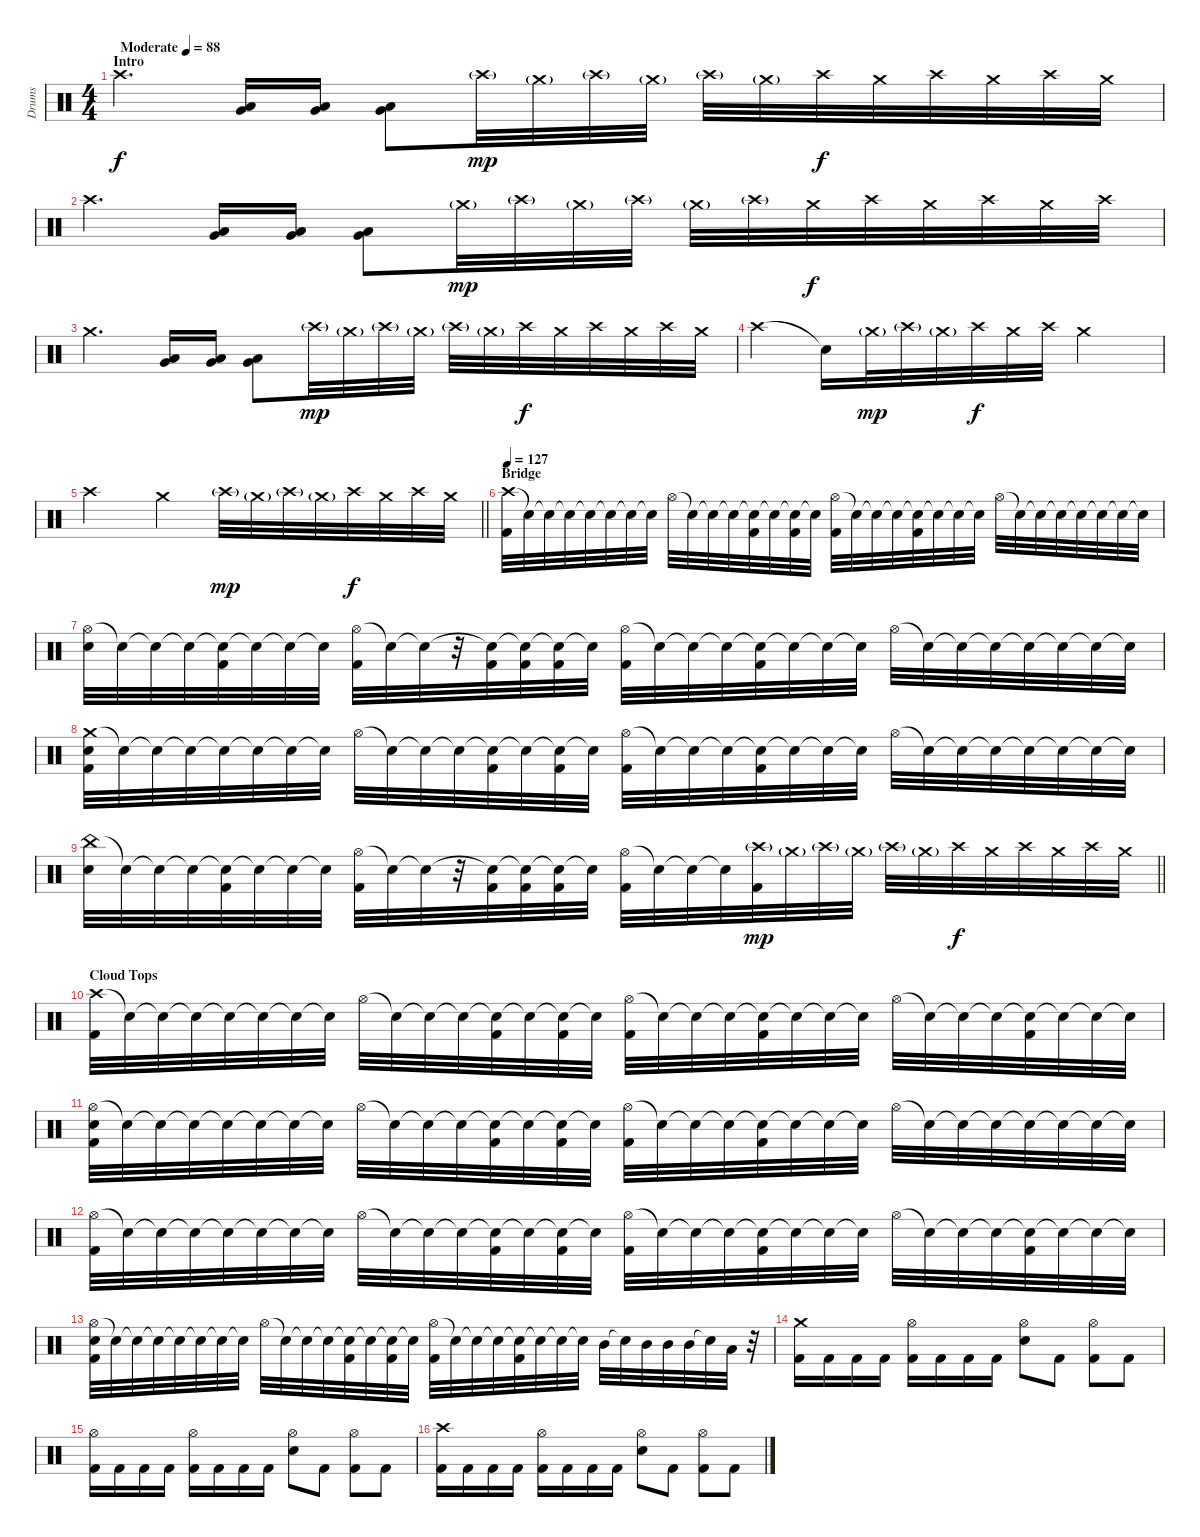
\track ("Drums" "Drums") {instrument percussion}
\staff {score}
\articulation defaults
\ts (4 4)
\section ("" "Intro")
\tempo (88 "Moderate")
\clef neutral
\ks c "Crash high (hit)".4{d dy f}
("Low Tom (hit)" "Very Low Tom (hit)").16 ("Low Tom (hit)" "Very Low Tom (hit)").16 ("Low Tom (hit)" "Very Low Tom (hit)").8 "Crash high (hit)"{g}.32{dy mp} "Crash medium (hit)"{g}.32 "Crash high (hit)"{g}.32 "Crash medium (hit)"{g}.32 "Crash high (hit)"{g}.32 "Crash medium (hit)"{g}.32 "Crash high (hit)".32{dy f} "Crash medium (hit)".32 "Crash high (hit)".32 "Crash medium (hit)".32 "Crash high (hit)".32 "Crash medium (hit)".32 |
"Crash high (hit)".4{d} ("Low Tom (hit)" "Very Low Tom (hit)").16 ("Low Tom (hit)" "Very Low Tom (hit)").16 ("Low Tom (hit)" "Very Low Tom (hit)").8 "Crash medium (hit)"{g}.32{dy mp} "Crash high (hit)"{g}.32 "Crash medium (hit)"{g}.32 "Crash high (hit)"{g}.32 "Crash medium (hit)"{g}.32 "Crash high (hit)"{g}.32 "Crash medium (hit)".32{dy f} "Crash high (hit)".32 "Crash medium (hit)".32 "Crash high (hit)".32 "Crash medium (hit)".32 "Crash high (hit)".32 |
"Crash medium (hit)".4{d} ("Low Tom (hit)" "Very Low Tom (hit)").16 ("Low Tom (hit)" "Very Low Tom (hit)").16 ("Low Tom (hit)" "Very Low Tom (hit)").8 "Crash high (hit)"{g}.32{dy mp} "Crash medium (hit)"{g}.32 "Crash high (hit)"{g}.32 "Crash medium (hit)"{g}.32 "Crash high (hit)"{g}.32 "Crash medium (hit)"{g}.32 "Crash high (hit)".32{dy f} "Crash medium (hit)".32 "Crash high (hit)".32 "Crash medium (hit)".32 "Crash high (hit)".32 "Crash medium (hit)".32 |
"Crash high (hit)".4 "Snare (hit)"{t}.16 "Crash medium (hit)"{g}.32{dy mp} "Crash high (hit)"{g}.32 "Crash medium (hit)"{g}.32 "Crash high (hit)".32{dy f} "Crash medium (hit)".32 "Crash high (hit)".32 "Crash medium (hit)".2 |
\barLineRight lightlight "Crash high (hit)".2 "Crash medium (hit)".4 "Crash high (hit)"{g}.32{dy mp} "Crash medium (hit)"{g}.32 "Crash high (hit)"{g}.32 "Crash medium (hit)"{g}.32 "Crash high (hit)".32{dy f} "Crash medium (hit)".32 "Crash high (hit)".32 "Crash medium (hit)".32
|
\section ("" "Bridge")
\tempo 127
("Crash high (hit)" "Kick (hit) 2").32 "Snare (hit)"{t}.32 "Snare (hit)"{t}.32 "Snare (hit)"{t}.32 "Snare (hit)"{t}.32 "Snare (hit)"{t}.32 "Snare (hit)"{t}.32 "Snare (hit)"{t}.32 "Hi-Hat (open)".32 "Snare (hit)"{t}.32 "Snare (hit)"{t}.32 "Snare (hit)"{t}.32 ("Snare (hit)"{t} "Kick (hit) 2").32 "Snare (hit)"{t}.32 ("Snare (hit)"{t} "Kick (hit) 2").32 "Snare (hit)"{t}.32 ("Hi-Hat (open)" "Kick (hit) 2").32 "Snare (hit)"{t}.32 "Snare (hit)"{t}.32 "Snare (hit)"{t}.32 ("Snare (hit)"{t} "Kick (hit) 2").32 "Snare (hit)"{t}.32 "Snare (hit)"{t}.32 "Snare (hit)"{t}.32 "Hi-Hat (open)".32 "Snare (hit)"{t}.32 "Snare (hit)"{t}.32 "Snare (hit)"{t}.32 "Snare (hit)"{t}.32 "Snare (hit)"{t}.32 "Snare (hit)"{t}.32 "Snare (hit)"{t}.32 |
("Hi-Hat (open)" "Snare (hit) 2").32 "Snare (hit)"{t}.32 "Snare (hit)"{t}.32 "Snare (hit)"{t}.32 ("Snare (hit)"{t} "Kick (hit) 2").32 "Snare (hit)"{t}.32 "Snare (hit)"{t}.32 "Snare (hit)"{t}.32 ("Hi-Hat (open)" "Kick (hit) 2").32 "Snare (hit)"{t}.32 "Snare (hit)"{t}.32 r.32 ("Snare (hit)"{t} "Kick (hit) 2").32 ("Snare (hit)"{t} "Kick (hit) 2").32 ("Snare (hit)"{t} "Kick (hit) 2").32 "Snare (hit)"{t}.32 ("Hi-Hat (open)" "Kick (hit) 2").32 "Snare (hit)"{t}.32 "Snare (hit)"{t}.32 "Snare (hit)"{t}.32 ("Snare (hit)"{t} "Kick (hit) 2").32 "Snare (hit)"{t}.32 "Snare (hit)"{t}.32 "Snare (hit)"{t}.32 "Hi-Hat (open)".32 "Snare (hit)"{t}.32 "Snare (hit)"{t}.32 "Snare (hit)"{t}.32 "Snare (hit)"{t}.32 "Snare (hit)"{t}.32 "Snare (hit)"{t}.32 "Snare (hit)"{t}.32 |
("Crash medium (hit)" "Snare (hit) 2" "Kick (hit) 2").32 "Snare (hit)"{t}.32 "Snare (hit)"{t}.32 "Snare (hit)"{t}.32 "Snare (hit)"{t}.32 "Snare (hit)"{t}.32 "Snare (hit)"{t}.32 "Snare (hit)"{t}.32 "Hi-Hat (open)".32 "Snare (hit)"{t}.32 "Snare (hit)"{t}.32 "Snare (hit)"{t}.32 ("Snare (hit)"{t} "Kick (hit) 2").32 "Snare (hit)"{t}.32 ("Snare (hit)"{t} "Kick (hit) 2").32 "Snare (hit)"{t}.32 ("Hi-Hat (open)" "Kick (hit) 2").32 "Snare (hit)"{t}.32 "Snare (hit)"{t}.32 "Snare (hit)"{t}.32 ("Snare (hit)"{t} "Kick (hit) 2").32 "Snare (hit)"{t}.32 "Snare (hit)"{t}.32 "Snare (hit)"{t}.32 "Hi-Hat (open)".32 "Snare (hit)"{t}.32 "Snare (hit)"{t}.32 "Snare (hit)"{t}.32 "Snare (hit)"{t}.32 "Snare (hit)"{t}.32 "Snare (hit)"{t}.32 "Snare (hit)"{t}.32 |
\barLineRight lightlight
("China (hit)" "Snare (hit) 2").32 "Snare (hit)"{t}.32 "Snare (hit)"{t}.32 "Snare (hit)"{t}.32 ("Snare (hit)"{t} "Kick (hit) 2").32 "Snare (hit)"{t}.32 "Snare (hit)"{t}.32 "Snare (hit)"{t}.32 ("Hi-Hat (open)" "Kick (hit) 2").32 "Snare (hit)"{t}.32 "Snare (hit)"{t}.32 r.32 ("Snare (hit)"{t} "Kick (hit) 2").32 ("Snare (hit)"{t} "Kick (hit) 2").32 ("Snare (hit)"{t} "Kick (hit) 2").32 "Snare (hit)"{t}.32 ("Hi-Hat (open)" "Kick (hit) 2").32 "Snare (hit)"{t}.32 "Snare (hit)"{t}.32 "Snare (hit)"{t}.32 ("Crash high (hit)"{g} "Kick (hit) 2").32{dy mp} "Crash medium (hit)"{g}.32 "Crash high (hit)"{g}.32 "Crash medium (hit)"{g}.32 "Crash high (hit)"{g}.32 "Crash medium (hit)"{g}.32 "Crash high (hit)".32{dy f} "Crash medium (hit)".32 "Crash high (hit)".32 "Crash medium (hit)".32 "Crash high (hit)".32 "Crash medium (hit)".32 |
\section ("" "Cloud Tops")
("Crash high (hit)" "Kick (hit) 2").32 "Snare (hit)"{t}.32 "Snare (hit)"{t}.32 "Snare (hit)"{t}.32 "Snare (hit)"{t}.32 "Snare (hit)"{t}.32 "Snare (hit)"{t}.32 "Snare (hit)"{t}.32 "Hi-Hat (open)".32 "Snare (hit)"{t}.32 "Snare (hit)"{t}.32 "Snare (hit)"{t}.32 ("Snare (hit)"{t} "Kick (hit) 2").32 "Snare (hit)"{t}.32 ("Snare (hit)"{t} "Kick (hit) 2").32 "Snare (hit)"{t}.32 ("Hi-Hat (open)" "Kick (hit) 2").32 "Snare (hit)"{t}.32 "Snare (hit)"{t}.32 "Snare (hit)"{t}.32 ("Snare (hit)"{t} "Kick (hit) 2").32 "Snare (hit)"{t}.32 "Snare (hit)"{t}.32 "Snare (hit)"{t}.32 "Hi-Hat (open)".32 "Snare (hit)"{t}.32 "Snare (hit)"{t}.32 "Snare (hit)"{t}.32 ("Snare (hit)"{t} "Kick (hit) 2").32 "Snare (hit)"{t}.32 "Snare (hit)"{t}.32 "Snare (hit)"{t}.32 |
("Hi-Hat (open)" "Snare (hit) 2" "Kick (hit) 2").32 "Snare (hit)"{t}.32 "Snare (hit)"{t}.32 "Snare (hit)"{t}.32 "Snare (hit)"{t}.32 "Snare (hit)"{t}.32 "Snare (hit)"{t}.32 "Snare (hit)"{t}.32 "Hi-Hat (open)".32 "Snare (hit)"{t}.32 "Snare (hit)"{t}.32 "Snare (hit)"{t}.32 ("Snare (hit)"{t} "Kick (hit) 2").32 "Snare (hit)"{t}.32 ("Snare (hit)"{t} "Kick (hit) 2").32 "Snare (hit)"{t}.32 ("Hi-Hat (open)" "Kick (hit) 2").32 "Snare (hit)"{t}.32 "Snare (hit)"{t}.32 "Snare (hit)"{t}.32 ("Snare (hit)"{t} "Kick (hit) 2").32 "Snare (hit)"{t}.32 "Snare (hit)"{t}.32 "Snare (hit)"{t}.32 "Hi-Hat (open)".32 "Snare (hit)"{t}.32 "Snare (hit)"{t}.32 "Snare (hit)"{t}.32 "Snare (hit)"{t}.32 "Snare (hit)"{t}.32 "Snare (hit)"{t}.32 "Snare (hit)"{t}.32 |
("Hi-Hat (open)" "Kick (hit) 2").32 "Snare (hit)"{t}.32 "Snare (hit)"{t}.32 "Snare (hit)"{t}.32 "Snare (hit)"{t}.32 "Snare (hit)"{t}.32 "Snare (hit)"{t}.32 "Snare (hit)"{t}.32 "Hi-Hat (open)".32 "Snare (hit)"{t}.32 "Snare (hit)"{t}.32 "Snare (hit)"{t}.32 ("Snare (hit)"{t} "Kick (hit) 2").32 "Snare (hit)"{t}.32 ("Snare (hit)"{t} "Kick (hit) 2").32 "Snare (hit)"{t}.32 ("Hi-Hat (open)" "Kick (hit) 2").32 "Snare (hit)"{t}.32 "Snare (hit)"{t}.32 "Snare (hit)"{t}.32 ("Snare (hit)"{t} "Kick (hit) 2").32 "Snare (hit)"{t}.32 "Snare (hit)"{t}.32 "Snare (hit)"{t}.32 "Hi-Hat (open)".32 "Snare (hit)"{t}.32 "Snare (hit)"{t}.32 "Snare (hit)"{t}.32 ("Snare (hit)"{t} "Kick (hit) 2").32 "Snare (hit)"{t}.32 "Snare (hit)"{t}.32 "Snare (hit)"{t}.32 |
("Hi-Hat (open)" "Snare (hit) 2" "Kick (hit) 2").32 "Snare (hit)"{t}.32 "Snare (hit)"{t}.32 "Snare (hit)"{t}.32 "Snare (hit)"{t}.32 "Snare (hit)"{t}.32 "Snare (hit)"{t}.32 "Snare (hit)"{t}.32 "Hi-Hat (open)".32 "Snare (hit)"{t}.32 "Snare (hit)"{t}.32 "Snare (hit)"{t}.32 ("Snare (hit)"{t} "Kick (hit) 2").32 "Snare (hit)"{t}.32 ("Snare (hit)"{t} "Kick (hit) 2").32 "Snare (hit)"{t}.32 ("Hi-Hat (open)" "Kick (hit) 2").32 "Snare (hit)"{t}.32 "Snare (hit)"{t}.32 "Snare (hit)"{t}.32 ("Snare (hit)"{t} "Kick (hit) 2").32 "Snare (hit)"{t}.32 "Snare (hit)"{t}.32 "Snare (hit)"{t}.32 "Mid Tom (hit)".32 "Snare (hit)"{t}.32 "Mid Tom (hit)".32 "Mid Tom (hit)".32 "Mid Tom (hit)".32 "Snare (hit)"{t}.32 "Low Tom (hit)".32 r.32 |
("Crash medium (hit)" "Kick (hit) 2").16 "Kick (hit) 2".16 "Kick (hit) 2".16 "Kick (hit) 2".16 ("Hi-Hat (open)" "Kick (hit) 2").16 "Kick (hit) 2".16 "Kick (hit) 2".16 "Kick (hit) 2".16 ("Hi-Hat (open)" "Snare (hit) 2").8 "Kick (hit) 2".8 ("Hi-Hat (open)" "Kick (hit) 2").8 "Kick (hit) 2".8 |
("Hi-Hat (open)" "Kick (hit) 2").16 "Kick (hit) 2".16 "Kick (hit) 2".16 "Kick (hit) 2".16 ("Hi-Hat (open)" "Kick (hit) 2").16 "Kick (hit) 2".16 "Kick (hit) 2".16 "Kick (hit) 2".16 ("Hi-Hat (open)" "Snare (hit) 2").8 "Kick (hit) 2".8 ("Hi-Hat (open)" "Kick (hit) 2").8 "Kick (hit) 2".8 |
("Crash high (hit)" "Kick (hit) 2").16 "Kick (hit) 2".16 "Kick (hit) 2".16 "Kick (hit) 2".16 ("Hi-Hat (open)" "Kick (hit) 2").16 "Kick (hit) 2".16 "Kick (hit) 2".16 "Kick (hit) 2".16 ("Hi-Hat (open)" "Snare (hit) 2").8 "Kick (hit) 2".8 ("Hi-Hat (open)" "Kick (hit) 2").8 "Kick (hit) 2".8
